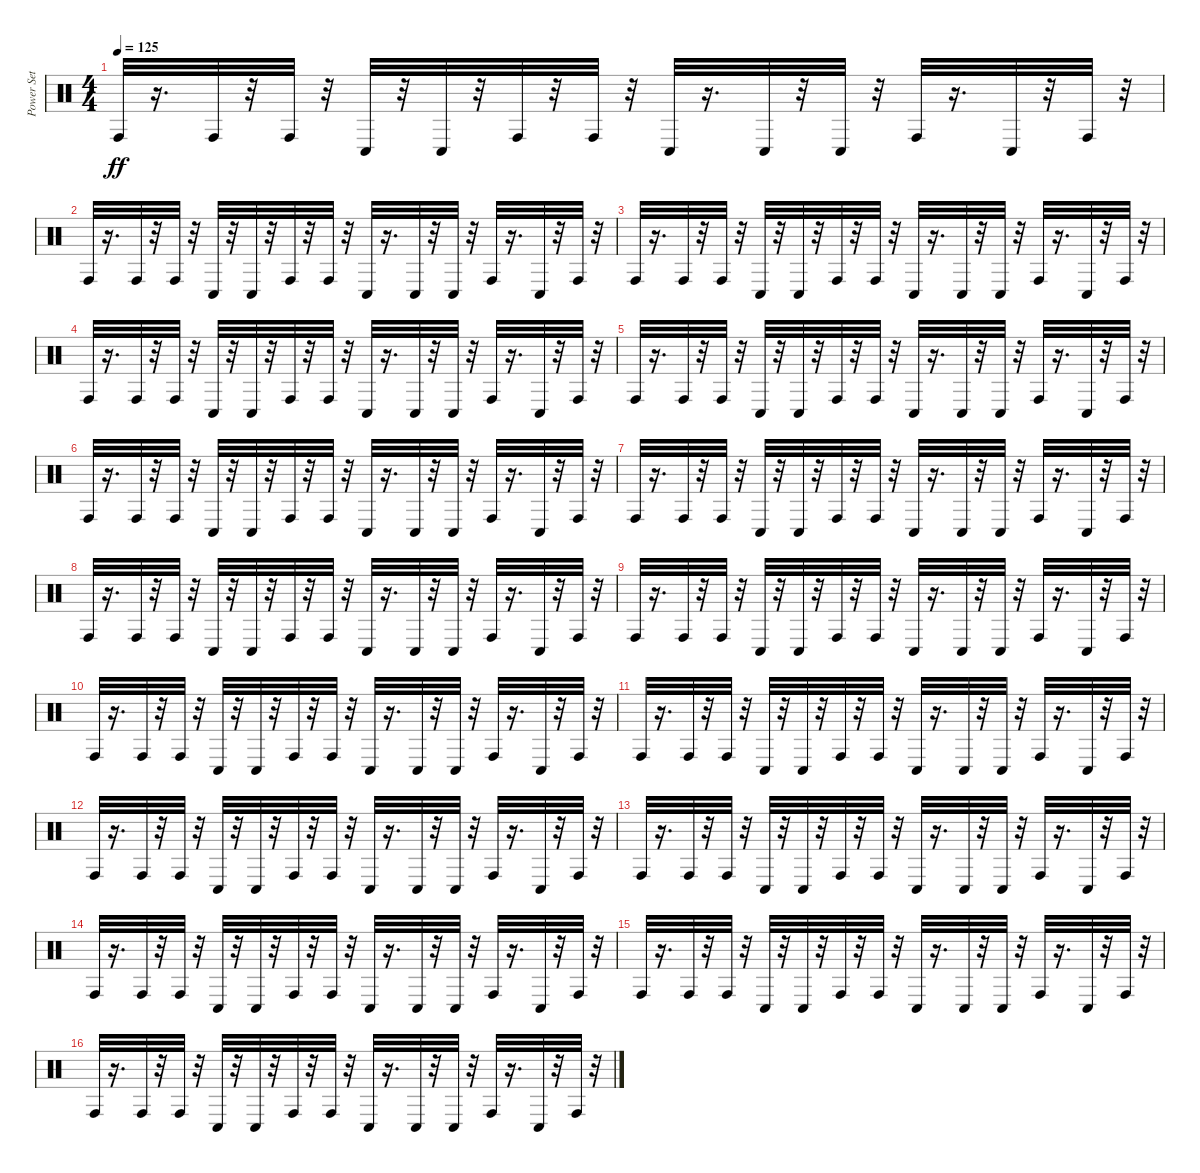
\track ("Power Set" "Power Set") {instrument percussion}
\staff {score}
\articulation defaults
\ts (4 4)
\tempo 125
\clef neutral
\ks c "Conga high (hit)".32{dy ff}
r.16{d} "Conga high (hit)".32 r.32 "Conga high (hit)".32 r.32 "Conga low (hit)".32 r.32 "Conga low (hit)".32 r.32 "Conga high (hit)".32 r.32 "Conga high (hit)".32 r.32 "Conga low (hit)".32 r.16{d} "Conga low (hit)".32 r.32 "Conga low (hit)".32 r.32 "Conga high (hit)".32 r.16{d} "Conga low (hit)".32 r.32 "Conga high (hit)".32 r.32 |
"Conga high (hit)".32 r.16{d} "Conga high (hit)".32 r.32 "Conga high (hit)".32 r.32 "Conga low (hit)".32 r.32 "Conga low (hit)".32 r.32 "Conga high (hit)".32 r.32 "Conga high (hit)".32 r.32 "Conga low (hit)".32 r.16{d} "Conga low (hit)".32 r.32 "Conga low (hit)".32 r.32 "Conga high (hit)".32 r.16{d} "Conga low (hit)".32 r.32 "Conga high (hit)".32 r.32 |
"Conga high (hit)".32 r.16{d} "Conga high (hit)".32 r.32 "Conga high (hit)".32 r.32 "Conga low (hit)".32 r.32 "Conga low (hit)".32 r.32 "Conga high (hit)".32 r.32 "Conga high (hit)".32 r.32 "Conga low (hit)".32 r.16{d} "Conga low (hit)".32 r.32 "Conga low (hit)".32 r.32 "Conga high (hit)".32 r.16{d} "Conga low (hit)".32 r.32 "Conga high (hit)".32 r.32 |
"Conga high (hit)".32 r.16{d} "Conga high (hit)".32 r.32 "Conga high (hit)".32 r.32 "Conga low (hit)".32 r.32 "Conga low (hit)".32 r.32 "Conga high (hit)".32 r.32 "Conga high (hit)".32 r.32 "Conga low (hit)".32 r.16{d} "Conga low (hit)".32 r.32 "Conga low (hit)".32 r.32 "Conga high (hit)".32 r.16{d} "Conga low (hit)".32 r.32 "Conga high (hit)".32 r.32 |
"Conga high (hit)".32 r.16{d} "Conga high (hit)".32 r.32 "Conga high (hit)".32 r.32 "Conga low (hit)".32 r.32 "Conga low (hit)".32 r.32 "Conga high (hit)".32 r.32 "Conga high (hit)".32 r.32 "Conga low (hit)".32 r.16{d} "Conga low (hit)".32 r.32 "Conga low (hit)".32 r.32 "Conga high (hit)".32 r.16{d} "Conga low (hit)".32 r.32 "Conga high (hit)".32 r.32 |
"Conga high (hit)".32 r.16{d} "Conga high (hit)".32 r.32 "Conga high (hit)".32 r.32 "Conga low (hit)".32 r.32 "Conga low (hit)".32 r.32 "Conga high (hit)".32 r.32 "Conga high (hit)".32 r.32 "Conga low (hit)".32 r.16{d} "Conga low (hit)".32 r.32 "Conga low (hit)".32 r.32 "Conga high (hit)".32 r.16{d} "Conga low (hit)".32 r.32 "Conga high (hit)".32 r.32 |
"Conga high (hit)".32 r.16{d} "Conga high (hit)".32 r.32 "Conga high (hit)".32 r.32 "Conga low (hit)".32 r.32 "Conga low (hit)".32 r.32 "Conga high (hit)".32 r.32 "Conga high (hit)".32 r.32 "Conga low (hit)".32 r.16{d} "Conga low (hit)".32 r.32 "Conga low (hit)".32 r.32 "Conga high (hit)".32 r.16{d} "Conga low (hit)".32 r.32 "Conga high (hit)".32 r.32 |
"Conga high (hit)".32 r.16{d} "Conga high (hit)".32 r.32 "Conga high (hit)".32 r.32 "Conga low (hit)".32 r.32 "Conga low (hit)".32 r.32 "Conga high (hit)".32 r.32 "Conga high (hit)".32 r.32 "Conga low (hit)".32 r.16{d} "Conga low (hit)".32 r.32 "Conga low (hit)".32 r.32 "Conga high (hit)".32 r.16{d} "Conga low (hit)".32 r.32 "Conga high (hit)".32 r.32 |
"Conga high (hit)".32 r.16{d} "Conga high (hit)".32 r.32 "Conga high (hit)".32 r.32 "Conga low (hit)".32 r.32 "Conga low (hit)".32 r.32 "Conga high (hit)".32 r.32 "Conga high (hit)".32 r.32 "Conga low (hit)".32 r.16{d} "Conga low (hit)".32 r.32 "Conga low (hit)".32 r.32 "Conga high (hit)".32 r.16{d} "Conga low (hit)".32 r.32 "Conga high (hit)".32 r.32 |
"Conga high (hit)".32 r.16{d} "Conga high (hit)".32 r.32 "Conga high (hit)".32 r.32 "Conga low (hit)".32 r.32 "Conga low (hit)".32 r.32 "Conga high (hit)".32 r.32 "Conga high (hit)".32 r.32 "Conga low (hit)".32 r.16{d} "Conga low (hit)".32 r.32 "Conga low (hit)".32 r.32 "Conga high (hit)".32 r.16{d} "Conga low (hit)".32 r.32 "Conga high (hit)".32 r.32 |
"Conga high (hit)".32 r.16{d} "Conga high (hit)".32 r.32 "Conga high (hit)".32 r.32 "Conga low (hit)".32 r.32 "Conga low (hit)".32 r.32 "Conga high (hit)".32 r.32 "Conga high (hit)".32 r.32 "Conga low (hit)".32 r.16{d} "Conga low (hit)".32 r.32 "Conga low (hit)".32 r.32 "Conga high (hit)".32 r.16{d} "Conga low (hit)".32 r.32 "Conga high (hit)".32 r.32 |
"Conga high (hit)".32 r.16{d} "Conga high (hit)".32 r.32 "Conga high (hit)".32 r.32 "Conga low (hit)".32 r.32 "Conga low (hit)".32 r.32 "Conga high (hit)".32 r.32 "Conga high (hit)".32 r.32 "Conga low (hit)".32 r.16{d} "Conga low (hit)".32 r.32 "Conga low (hit)".32 r.32 "Conga high (hit)".32 r.16{d} "Conga low (hit)".32 r.32 "Conga high (hit)".32 r.32 |
"Conga high (hit)".32 r.16{d} "Conga high (hit)".32 r.32 "Conga high (hit)".32 r.32 "Conga low (hit)".32 r.32 "Conga low (hit)".32 r.32 "Conga high (hit)".32 r.32 "Conga high (hit)".32 r.32 "Conga low (hit)".32 r.16{d} "Conga low (hit)".32 r.32 "Conga low (hit)".32 r.32 "Conga high (hit)".32 r.16{d} "Conga low (hit)".32 r.32 "Conga high (hit)".32 r.32 |
"Conga high (hit)".32 r.16{d} "Conga high (hit)".32 r.32 "Conga high (hit)".32 r.32 "Conga low (hit)".32 r.32 "Conga low (hit)".32 r.32 "Conga high (hit)".32 r.32 "Conga high (hit)".32 r.32 "Conga low (hit)".32 r.16{d} "Conga low (hit)".32 r.32 "Conga low (hit)".32 r.32 "Conga high (hit)".32 r.16{d} "Conga low (hit)".32 r.32 "Conga high (hit)".32 r.32 |
"Conga high (hit)".32 r.16{d} "Conga high (hit)".32 r.32 "Conga high (hit)".32 r.32 "Conga low (hit)".32 r.32 "Conga low (hit)".32 r.32 "Conga high (hit)".32 r.32 "Conga high (hit)".32 r.32 "Conga low (hit)".32 r.16{d} "Conga low (hit)".32 r.32 "Conga low (hit)".32 r.32 "Conga high (hit)".32 r.16{d} "Conga low (hit)".32 r.32 "Conga high (hit)".32 r.32 |
"Conga high (hit)".32 r.16{d} "Conga high (hit)".32 r.32 "Conga high (hit)".32 r.32 "Conga low (hit)".32 r.32 "Conga low (hit)".32 r.32 "Conga high (hit)".32 r.32 "Conga high (hit)".32 r.32 "Conga low (hit)".32 r.16{d} "Conga low (hit)".32 r.32 "Conga low (hit)".32 r.32 "Conga high (hit)".32 r.16{d} "Conga low (hit)".32 r.32 "Conga high (hit)".32 r.32
